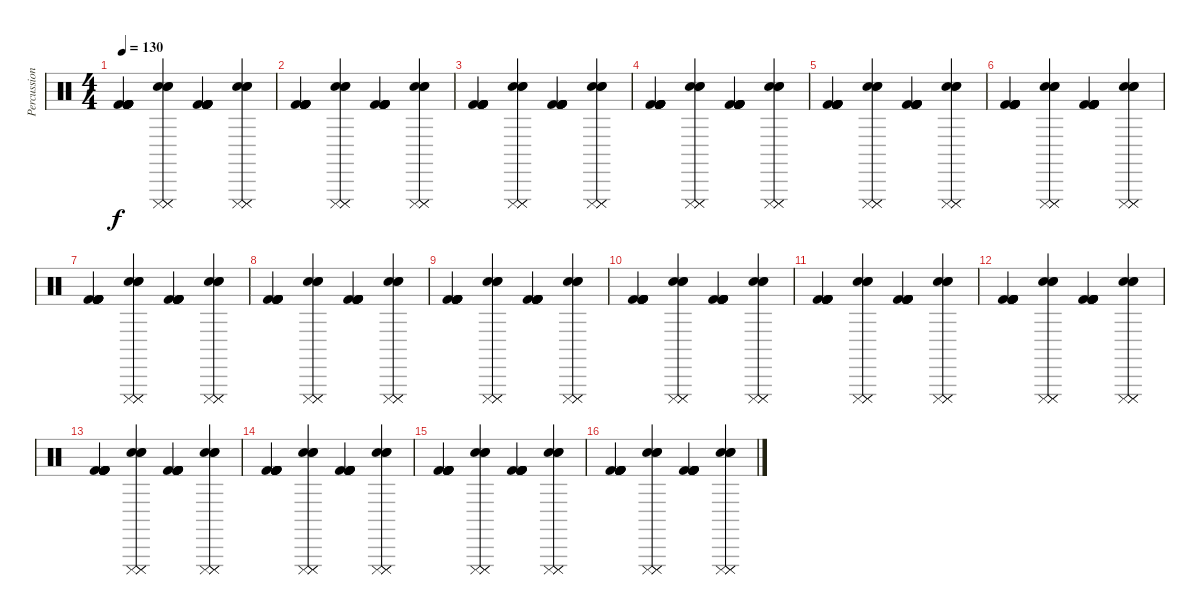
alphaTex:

\track ("Percussion" "Percussion") {instrument percussion}
\staff {score}
\articulation defaults
\ts (4 4)
\tempo 130
\clef neutral
\ks c
("Kick (hit) 2" "Kick (hit) 2" "Kick (hit) 2" "Kick (hit) 2" "Kick (hit) 2" "Kick (hit) 2").4{dy f} ("Electric Snare (hit)" "Cuica (mute)" "Electric Snare (hit)" "Cuica (mute)" "Electric Snare (hit)" "Cuica (mute)").4 ("Kick (hit) 2" "Kick (hit) 2" "Kick (hit) 2" "Kick (hit) 2" "Kick (hit) 2" "Kick (hit) 2").4 ("Electric Snare (hit)" "Cuica (mute)" "Electric Snare (hit)" "Cuica (mute)" "Electric Snare (hit)" "Cuica (mute)").4 |
("Kick (hit) 2" "Kick (hit) 2" "Kick (hit) 2" "Kick (hit) 2" "Kick (hit) 2" "Kick (hit) 2").4 ("Electric Snare (hit)" "Cuica (mute)" "Electric Snare (hit)" "Cuica (mute)" "Electric Snare (hit)" "Cuica (mute)").4 ("Kick (hit) 2" "Kick (hit) 2" "Kick (hit) 2" "Kick (hit) 2" "Kick (hit) 2" "Kick (hit) 2").4 ("Electric Snare (hit)" "Cuica (mute)" "Electric Snare (hit)" "Cuica (mute)" "Electric Snare (hit)" "Cuica (mute)").4 |
("Kick (hit) 2" "Kick (hit) 2" "Kick (hit) 2" "Kick (hit) 2" "Kick (hit) 2" "Kick (hit) 2").4 ("Electric Snare (hit)" "Cuica (mute)" "Electric Snare (hit)" "Cuica (mute)" "Electric Snare (hit)" "Cuica (mute)").4 ("Kick (hit) 2" "Kick (hit) 2" "Kick (hit) 2" "Kick (hit) 2" "Kick (hit) 2" "Kick (hit) 2").4 ("Electric Snare (hit)" "Cuica (mute)" "Electric Snare (hit)" "Cuica (mute)" "Electric Snare (hit)" "Cuica (mute)").4 |
("Kick (hit) 2" "Kick (hit) 2" "Kick (hit) 2" "Kick (hit) 2" "Kick (hit) 2" "Kick (hit) 2").4 ("Electric Snare (hit)" "Cuica (mute)" "Electric Snare (hit)" "Cuica (mute)" "Electric Snare (hit)" "Cuica (mute)").4 ("Kick (hit) 2" "Kick (hit) 2" "Kick (hit) 2" "Kick (hit) 2" "Kick (hit) 2" "Kick (hit) 2").4 ("Electric Snare (hit)" "Cuica (mute)" "Electric Snare (hit)" "Cuica (mute)" "Electric Snare (hit)" "Cuica (mute)").4 |
("Kick (hit) 2" "Kick (hit) 2" "Kick (hit) 2" "Kick (hit) 2" "Kick (hit) 2" "Kick (hit) 2").4 ("Electric Snare (hit)" "Cuica (mute)" "Electric Snare (hit)" "Cuica (mute)" "Electric Snare (hit)" "Cuica (mute)").4 ("Kick (hit) 2" "Kick (hit) 2" "Kick (hit) 2" "Kick (hit) 2" "Kick (hit) 2" "Kick (hit) 2").4 ("Electric Snare (hit)" "Cuica (mute)" "Electric Snare (hit)" "Cuica (mute)" "Electric Snare (hit)" "Cuica (mute)").4 |
("Kick (hit) 2" "Kick (hit) 2" "Kick (hit) 2" "Kick (hit) 2" "Kick (hit) 2" "Kick (hit) 2").4 ("Electric Snare (hit)" "Cuica (mute)" "Electric Snare (hit)" "Cuica (mute)" "Electric Snare (hit)" "Cuica (mute)").4 ("Kick (hit) 2" "Kick (hit) 2" "Kick (hit) 2" "Kick (hit) 2" "Kick (hit) 2" "Kick (hit) 2").4 ("Electric Snare (hit)" "Cuica (mute)" "Electric Snare (hit)" "Cuica (mute)" "Electric Snare (hit)" "Cuica (mute)").4 |
("Kick (hit) 2" "Kick (hit) 2" "Kick (hit) 2" "Kick (hit) 2" "Kick (hit) 2" "Kick (hit) 2").4 ("Electric Snare (hit)" "Cuica (mute)" "Electric Snare (hit)" "Cuica (mute)" "Electric Snare (hit)" "Cuica (mute)").4 ("Kick (hit) 2" "Kick (hit) 2" "Kick (hit) 2" "Kick (hit) 2" "Kick (hit) 2" "Kick (hit) 2").4 ("Electric Snare (hit)" "Cuica (mute)" "Electric Snare (hit)" "Cuica (mute)" "Electric Snare (hit)" "Cuica (mute)").4 |
("Kick (hit) 2" "Kick (hit) 2" "Kick (hit) 2" "Kick (hit) 2" "Kick (hit) 2" "Kick (hit) 2").4 ("Electric Snare (hit)" "Cuica (mute)" "Electric Snare (hit)" "Cuica (mute)" "Electric Snare (hit)" "Cuica (mute)").4 ("Kick (hit) 2" "Kick (hit) 2" "Kick (hit) 2" "Kick (hit) 2" "Kick (hit) 2" "Kick (hit) 2").4 ("Electric Snare (hit)" "Cuica (mute)" "Electric Snare (hit)" "Cuica (mute)" "Electric Snare (hit)" "Cuica (mute)").4 |
("Kick (hit) 2" "Kick (hit) 2" "Kick (hit) 2" "Kick (hit) 2" "Kick (hit) 2" "Kick (hit) 2").4 ("Electric Snare (hit)" "Cuica (mute)" "Electric Snare (hit)" "Cuica (mute)" "Electric Snare (hit)" "Cuica (mute)").4 ("Kick (hit) 2" "Kick (hit) 2" "Kick (hit) 2" "Kick (hit) 2" "Kick (hit) 2" "Kick (hit) 2").4 ("Electric Snare (hit)" "Cuica (mute)" "Electric Snare (hit)" "Cuica (mute)" "Electric Snare (hit)" "Cuica (mute)").4 |
("Kick (hit) 2" "Kick (hit) 2" "Kick (hit) 2" "Kick (hit) 2" "Kick (hit) 2" "Kick (hit) 2").4 ("Electric Snare (hit)" "Cuica (mute)" "Electric Snare (hit)" "Cuica (mute)" "Electric Snare (hit)" "Cuica (mute)").4 ("Kick (hit) 2" "Kick (hit) 2" "Kick (hit) 2" "Kick (hit) 2" "Kick (hit) 2" "Kick (hit) 2").4 ("Electric Snare (hit)" "Cuica (mute)" "Electric Snare (hit)" "Cuica (mute)" "Electric Snare (hit)" "Cuica (mute)").4 |
("Kick (hit) 2" "Kick (hit) 2" "Kick (hit) 2" "Kick (hit) 2" "Kick (hit) 2" "Kick (hit) 2").4 ("Electric Snare (hit)" "Cuica (mute)" "Electric Snare (hit)" "Cuica (mute)" "Electric Snare (hit)" "Cuica (mute)").4 ("Kick (hit) 2" "Kick (hit) 2" "Kick (hit) 2" "Kick (hit) 2" "Kick (hit) 2" "Kick (hit) 2").4 ("Electric Snare (hit)" "Cuica (mute)" "Electric Snare (hit)" "Cuica (mute)" "Electric Snare (hit)" "Cuica (mute)").4 |
("Kick (hit) 2" "Kick (hit) 2" "Kick (hit) 2" "Kick (hit) 2" "Kick (hit) 2" "Kick (hit) 2").4 ("Electric Snare (hit)" "Cuica (mute)" "Electric Snare (hit)" "Cuica (mute)" "Electric Snare (hit)" "Cuica (mute)").4 ("Kick (hit) 2" "Kick (hit) 2" "Kick (hit) 2" "Kick (hit) 2" "Kick (hit) 2" "Kick (hit) 2").4 ("Electric Snare (hit)" "Cuica (mute)" "Electric Snare (hit)" "Cuica (mute)" "Electric Snare (hit)" "Cuica (mute)").4 |
("Kick (hit) 2" "Kick (hit) 2" "Kick (hit) 2" "Kick (hit) 2" "Kick (hit) 2" "Kick (hit) 2").4 ("Electric Snare (hit)" "Cuica (mute)" "Electric Snare (hit)" "Cuica (mute)" "Electric Snare (hit)" "Cuica (mute)").4 ("Kick (hit) 2" "Kick (hit) 2" "Kick (hit) 2" "Kick (hit) 2" "Kick (hit) 2" "Kick (hit) 2").4 ("Electric Snare (hit)" "Cuica (mute)" "Electric Snare (hit)" "Cuica (mute)" "Electric Snare (hit)" "Cuica (mute)").4 |
("Kick (hit) 2" "Kick (hit) 2" "Kick (hit) 2" "Kick (hit) 2" "Kick (hit) 2" "Kick (hit) 2").4 ("Electric Snare (hit)" "Cuica (mute)" "Electric Snare (hit)" "Cuica (mute)" "Electric Snare (hit)" "Cuica (mute)").4 ("Kick (hit) 2" "Kick (hit) 2" "Kick (hit) 2" "Kick (hit) 2" "Kick (hit) 2" "Kick (hit) 2").4 ("Electric Snare (hit)" "Cuica (mute)" "Electric Snare (hit)" "Cuica (mute)" "Electric Snare (hit)" "Cuica (mute)").4 |
("Kick (hit) 2" "Kick (hit) 2" "Kick (hit) 2" "Kick (hit) 2" "Kick (hit) 2" "Kick (hit) 2").4 ("Electric Snare (hit)" "Cuica (mute)" "Electric Snare (hit)" "Cuica (mute)" "Electric Snare (hit)" "Cuica (mute)").4 ("Kick (hit) 2" "Kick (hit) 2" "Kick (hit) 2" "Kick (hit) 2" "Kick (hit) 2" "Kick (hit) 2").4 ("Electric Snare (hit)" "Cuica (mute)" "Electric Snare (hit)" "Cuica (mute)" "Electric Snare (hit)" "Cuica (mute)").4 |
("Kick (hit) 2" "Kick (hit) 2" "Kick (hit) 2" "Kick (hit) 2" "Kick (hit) 2" "Kick (hit) 2").4 ("Electric Snare (hit)" "Cuica (mute)" "Electric Snare (hit)" "Cuica (mute)" "Electric Snare (hit)" "Cuica (mute)").4 ("Kick (hit) 2" "Kick (hit) 2" "Kick (hit) 2" "Kick (hit) 2" "Kick (hit) 2" "Kick (hit) 2").4 ("Electric Snare (hit)" "Cuica (mute)" "Electric Snare (hit)" "Cuica (mute)" "Electric Snare (hit)" "Cuica (mute)").4
